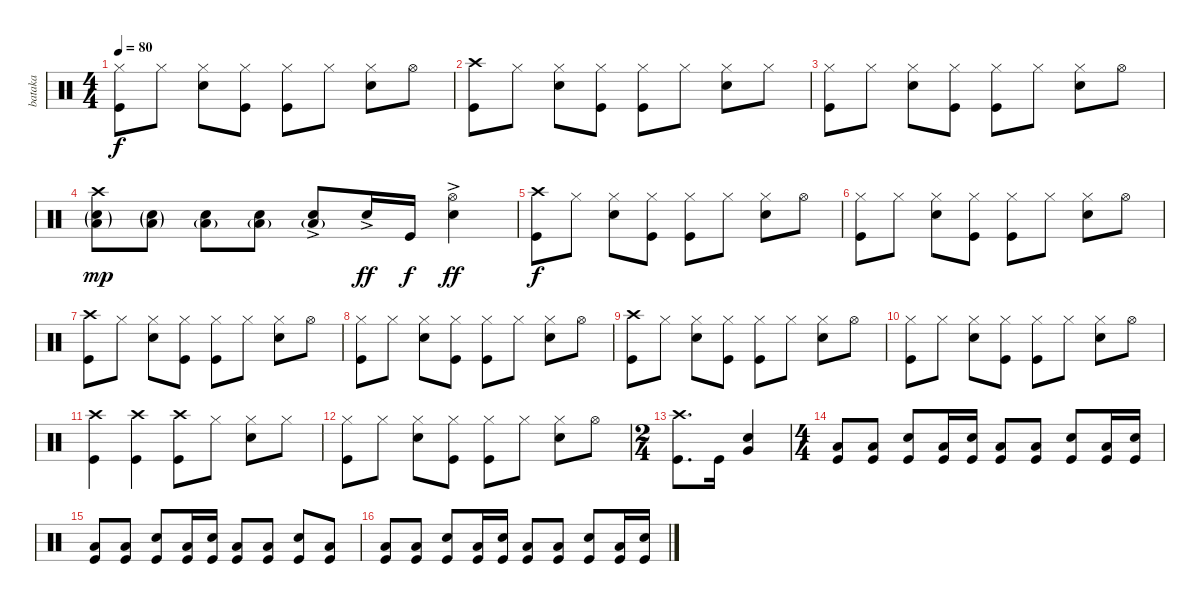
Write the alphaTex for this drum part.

\track ("bataka" "bataka") {instrument percussion}
\staff {score}
\articulation defaults
\ts (4 4)
\tempo 80
\clef neutral
\ks c
("Hi-Hat (closed)" "Kick (hit)").8{dy f} "Hi-Hat (closed)".8 ("Hi-Hat (closed)" "Electric Snare (hit)").8 ("Hi-Hat (closed)" "Kick (hit)").8 ("Hi-Hat (closed)" "Kick (hit)").8 "Hi-Hat (closed)".8 ("Hi-Hat (closed)" "Electric Snare (hit)").8 "Hi-Hat (open)".8 |
("Crash high (hit)" "Kick (hit)").8 "Hi-Hat (closed)".8 ("Hi-Hat (closed)" "Electric Snare (hit)").8 ("Hi-Hat (closed)" "Kick (hit)").8 ("Hi-Hat (closed)" "Kick (hit)").8 "Hi-Hat (closed)".8 ("Hi-Hat (closed)" "Electric Snare (hit)").8 "Hi-Hat (closed)".8 |
("Hi-Hat (closed)" "Kick (hit)").8 "Hi-Hat (closed)".8 ("Hi-Hat (closed)" "Electric Snare (hit)").8 ("Hi-Hat (closed)" "Kick (hit)").8 ("Hi-Hat (closed)" "Kick (hit)").8 "Hi-Hat (closed)".8 ("Hi-Hat (closed)" "Electric Snare (hit)").8 "Hi-Hat (open)".8 |
("Crash high (hit)" "Electric Snare (hit)"{g} "Low Floor Tom (hit)"{g}).8{dy mp} ("Electric Snare (hit)"{g} "Low Floor Tom (hit)"{g}).8 ("Electric Snare (hit)" "Low Floor Tom (hit)"{g}).8 ("Electric Snare (hit)" "Low Floor Tom (hit)"{g}).8 ("Electric Snare (hit)"{ac} "Low Floor Tom (hit)"{g}).8 "Electric Snare (hit)"{ac}.16{dy ff} "Kick (hit)".16{dy f} ("Hi-Hat (open)" "Electric Snare (hit)"{ac}).4{dy ff} |
("Crash high (hit)" "Kick (hit)").8{dy f} "Hi-Hat (closed)".8 ("Hi-Hat (closed)" "Electric Snare (hit)").8 ("Hi-Hat (closed)" "Kick (hit)").8 ("Hi-Hat (closed)" "Kick (hit)").8 "Hi-Hat (closed)".8 ("Hi-Hat (closed)" "Electric Snare (hit)").8 "Hi-Hat (open)".8 |
("Hi-Hat (closed)" "Kick (hit)").8 "Hi-Hat (closed)".8 ("Hi-Hat (closed)" "Electric Snare (hit)").8 ("Hi-Hat (closed)" "Kick (hit)").8 ("Hi-Hat (closed)" "Kick (hit)").8 "Hi-Hat (closed)".8 ("Hi-Hat (closed)" "Electric Snare (hit)").8 "Hi-Hat (open)".8 |
("Crash high (hit)" "Kick (hit)").8 "Hi-Hat (closed)".8 ("Hi-Hat (closed)" "Electric Snare (hit)").8 ("Hi-Hat (closed)" "Kick (hit)").8 ("Hi-Hat (closed)" "Kick (hit)").8 "Hi-Hat (closed)".8 ("Hi-Hat (closed)" "Electric Snare (hit)").8 "Hi-Hat (open)".8 |
("Hi-Hat (closed)" "Kick (hit)").8 "Hi-Hat (closed)".8 ("Hi-Hat (closed)" "Electric Snare (hit)").8 ("Hi-Hat (closed)" "Kick (hit)").8 ("Hi-Hat (closed)" "Kick (hit)").8 "Hi-Hat (closed)".8 ("Hi-Hat (closed)" "Electric Snare (hit)").8 "Hi-Hat (open)".8 |
("Crash high (hit)" "Kick (hit)").8 "Hi-Hat (closed)".8 ("Hi-Hat (closed)" "Electric Snare (hit)").8 ("Hi-Hat (closed)" "Kick (hit)").8 ("Hi-Hat (closed)" "Kick (hit)").8 "Hi-Hat (closed)".8 ("Hi-Hat (closed)" "Electric Snare (hit)").8 "Hi-Hat (open)".8 |
("Hi-Hat (closed)" "Kick (hit)").8 "Hi-Hat (closed)".8 ("Hi-Hat (closed)" "Electric Snare (hit)").8 ("Hi-Hat (closed)" "Kick (hit)").8 ("Hi-Hat (closed)" "Kick (hit)").8 "Hi-Hat (closed)".8 ("Hi-Hat (closed)" "Electric Snare (hit)").8 "Hi-Hat (open)".8 |
("Crash high (hit)" "Kick (hit)").4 ("Crash high (hit)" "Kick (hit)").4 ("Crash high (hit)" "Kick (hit)").8 "Hi-Hat (closed)".8 ("Hi-Hat (closed)" "Electric Snare (hit)").8 "Hi-Hat (closed)".8 |
("Hi-Hat (closed)" "Kick (hit)").8 "Hi-Hat (closed)".8 ("Hi-Hat (closed)" "Electric Snare (hit)").8 ("Hi-Hat (closed)" "Kick (hit)").8 ("Hi-Hat (closed)" "Kick (hit)").8 "Hi-Hat (closed)".8 ("Hi-Hat (closed)" "Electric Snare (hit)").8 "Hi-Hat (open)".8 |
\ts (2 4)
("Crash high (hit)" "Kick (hit)").8{d} "Kick (hit)".16 ("Electric Snare (hit)" "Very Low Tom (hit)").4 |
\ts (4 4)
("Low Floor Tom (hit)" "Kick (hit)").8 ("Low Floor Tom (hit)" "Kick (hit)").8 ("Electric Snare (hit)" "Kick (hit)").8 ("Low Floor Tom (hit)" "Kick (hit)").16 ("Electric Snare (hit)" "Kick (hit)").16 ("Low Floor Tom (hit)" "Kick (hit)").8 ("Low Floor Tom (hit)" "Kick (hit)").8 ("Electric Snare (hit)" "Kick (hit)").8 ("Low Floor Tom (hit)" "Kick (hit)").16 ("Electric Snare (hit)" "Kick (hit)").16 |
("Low Floor Tom (hit)" "Kick (hit)").8 ("Low Floor Tom (hit)" "Kick (hit)").8 ("Electric Snare (hit)" "Kick (hit)").8 ("Low Floor Tom (hit)" "Kick (hit)").16 ("Electric Snare (hit)" "Kick (hit)").16 ("Low Floor Tom (hit)" "Kick (hit)").8 ("Low Floor Tom (hit)" "Kick (hit)").8 ("Electric Snare (hit)" "Kick (hit)").8 ("Low Floor Tom (hit)" "Kick (hit)").8 |
("Low Floor Tom (hit)" "Kick (hit)").8 ("Low Floor Tom (hit)" "Kick (hit)").8 ("Electric Snare (hit)" "Kick (hit)").8 ("Low Floor Tom (hit)" "Kick (hit)").16 ("Electric Snare (hit)" "Kick (hit)").16 ("Low Floor Tom (hit)" "Kick (hit)").8 ("Low Floor Tom (hit)" "Kick (hit)").8 ("Electric Snare (hit)" "Kick (hit)").8 ("Low Floor Tom (hit)" "Kick (hit)").16 ("Electric Snare (hit)" "Kick (hit)").16
